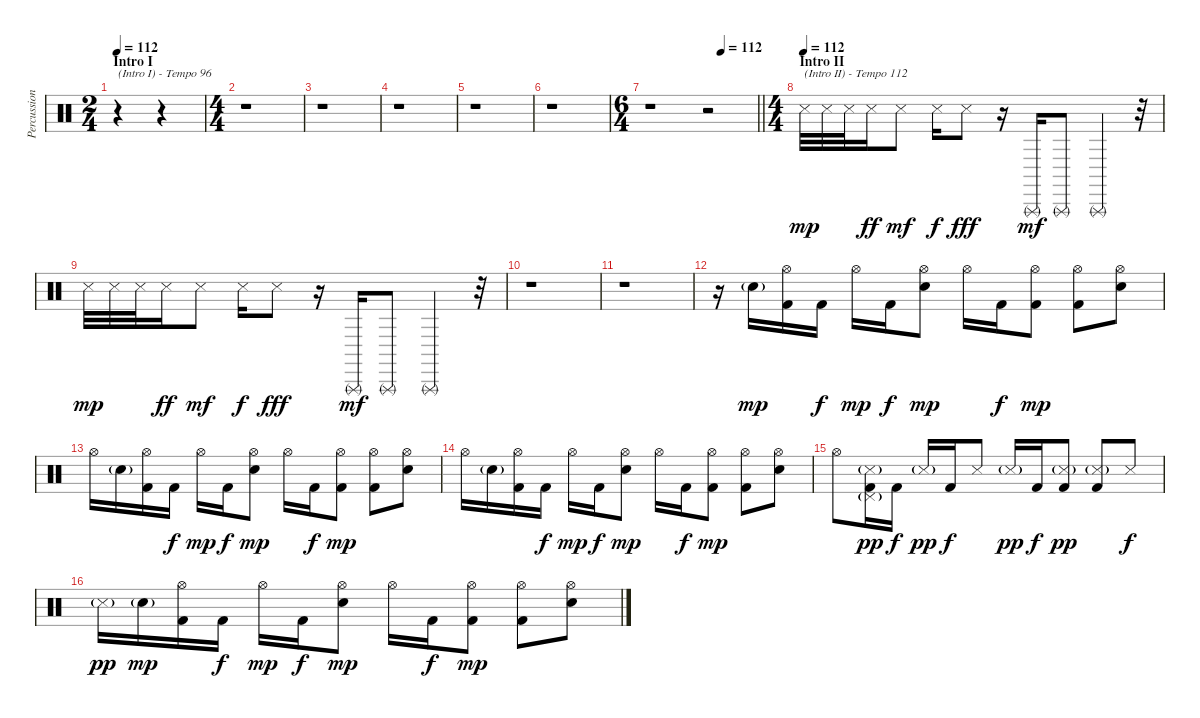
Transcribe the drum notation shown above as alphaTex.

\track ("Percussion" "Percussion") {instrument percussion}
\staff {score}
\articulation defaults
\ts (2 4)
\section ("" "Intro I")
\tempo 112
\tempo 96
\tempo 112
\clef neutral
\ks c
r.4{txt "(Intro I) - Tempo 96" dy mp} r.4 |
\ts (4 4)
r.1 |
r.1 |
r.1 |
r.1 |
r.1 |
\ts (6 4)
\tempo (112 0.6666666666666666)
\barLineRight lightlight
r.1 r.2 |
\ts (4 4)
\section ("" "Intro II")
\tempo (112)
"Snare (side stick) 3".32{txt "(Intro II) - Tempo 112"} "Snare (side stick) 3".32 "Snare (side stick) 3".32 "Snare (side stick) 3".16{dy ff} "Snare (side stick) 3".8{dy mf} "Snare (side stick) 3".16{dy f} "Snare (side stick) 3".8{dy fff} r.16 "Triangle (rnute)".16{dy mf} "Triangle (rnute)".8 "Triangle (rnute)".4 r.32 |
"Snare (side stick) 3".32{dy mp} "Snare (side stick) 3".32 "Snare (side stick) 3".32 "Snare (side stick) 3".16{dy ff} "Snare (side stick) 3".8{dy mf} "Snare (side stick) 3".16{dy f} "Snare (side stick) 3".8{dy fff} r.16 "Triangle (rnute)".16{dy mf} "Triangle (rnute)".8 "Triangle (rnute)".4 r.32 |
r.1 |
r.1 |
r.16 "Electric Snare (hit)"{g}.16{dy mp} ("Hi-Hat (open)" "Kick (hit) 2").16 "Kick (hit) 2".16{dy f} "Hi-Hat (open)".16{dy mp} "Kick (hit) 2".16{dy f} ("Hi-Hat (open)" "Electric Snare (hit)").8{dy mp} "Hi-Hat (open)".16 "Kick (hit) 2".16{dy f} ("Hi-Hat (open)" "Kick (hit) 2").8{dy mp} ("Hi-Hat (open)" "Kick (hit) 2").8 ("Hi-Hat (open)" "Electric Snare (hit)").8 |
"Hi-Hat (open)".16 "Electric Snare (hit)"{g}.16 ("Hi-Hat (open)" "Kick (hit) 2").16 "Kick (hit) 2".16{dy f} "Hi-Hat (open)".16{dy mp} "Kick (hit) 2".16{dy f} ("Hi-Hat (open)" "Electric Snare (hit)").8{dy mp} "Hi-Hat (open)".16 "Kick (hit) 2".16{dy f} ("Hi-Hat (open)" "Kick (hit) 2").8{dy mp} ("Hi-Hat (open)" "Kick (hit) 2").8 ("Hi-Hat (open)" "Electric Snare (hit)").8 |
"Hi-Hat (open)".16 "Electric Snare (hit)"{g}.16 ("Hi-Hat (open)" "Kick (hit) 2").16 "Kick (hit) 2".16{dy f} "Hi-Hat (open)".16{dy mp} "Kick (hit) 2".16{dy f} ("Hi-Hat (open)" "Electric Snare (hit)").8{dy mp} "Hi-Hat (open)".16 "Kick (hit) 2".16{dy f} ("Hi-Hat (open)" "Kick (hit) 2").8{dy mp} ("Hi-Hat (open)" "Kick (hit) 2").8 ("Hi-Hat (open)" "Electric Snare (hit)").8 |
"Hi-Hat (open)".8 ("Pedal Hi-Hat (hit)"{g} "Snare (side stick) 3"{g} "Kick (hit) 2").16{dy pp} "Kick (hit) 2".16{dy f} "Snare (side stick) 3"{g}.16{dy pp} "Kick (hit) 2".16{dy f} "Snare (side stick) 3".8 "Snare (side stick) 3"{g}.16{dy pp} "Kick (hit) 2".16{dy f} ("Snare (side stick) 3"{g} "Kick (hit) 2").8{dy pp} ("Snare (side stick) 3"{g} "Kick (hit) 2").8 "Snare (side stick) 3".8{dy f} |
"Snare (side stick) 3"{g}.16{dy pp} "Electric Snare (hit)"{g}.16{dy mp} ("Hi-Hat (open)" "Kick (hit) 2").16 "Kick (hit) 2".16{dy f} "Hi-Hat (open)".16{dy mp} "Kick (hit) 2".16{dy f} ("Hi-Hat (open)" "Electric Snare (hit)").8{dy mp} "Hi-Hat (open)".16 "Kick (hit) 2".16{dy f} ("Hi-Hat (open)" "Kick (hit) 2").8{dy mp} ("Hi-Hat (open)" "Kick (hit) 2").8 ("Hi-Hat (open)" "Electric Snare (hit)").8
